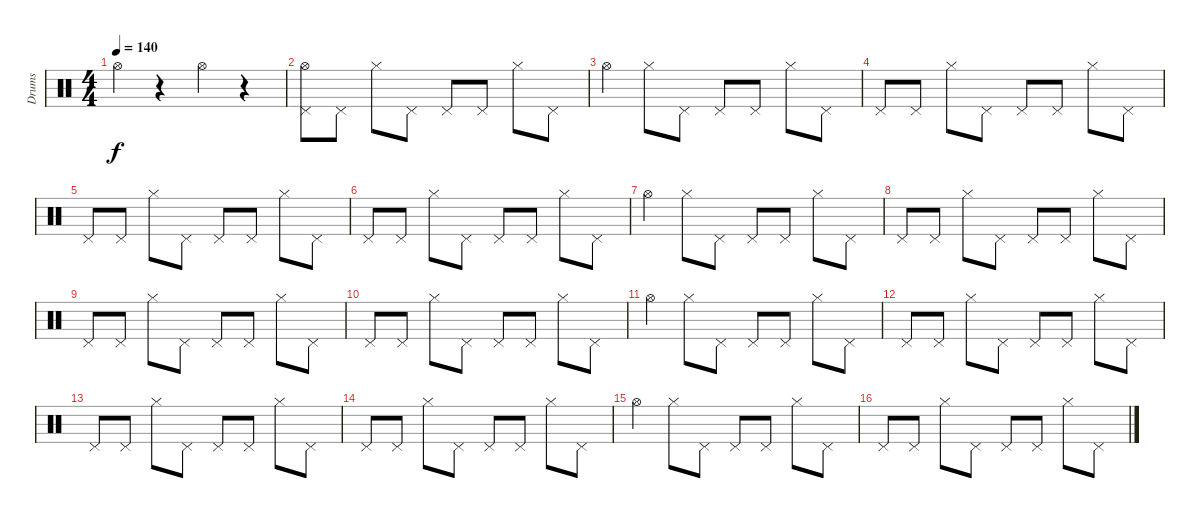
\track ("Drums" "Drums") {instrument percussion}
\staff {score}
\articulation defaults
\ts (4 4)
\tempo 140
\clef neutral
\ks c "Hi-Hat (open)".4{dy f}
r.4 "Hi-Hat (open)".4 r.4 |
("Hi-Hat (open)" "Pedal Hi-Hat (hit)").8 "Pedal Hi-Hat (hit)".8 "Hi-Hat (closed)".8 "Pedal Hi-Hat (hit)".8 "Pedal Hi-Hat (hit)".8 "Pedal Hi-Hat (hit)".8 "Hi-Hat (closed)".8 "Pedal Hi-Hat (hit)".8 |
"Hi-Hat (open)".4 "Hi-Hat (closed)".8 "Pedal Hi-Hat (hit)".8 "Pedal Hi-Hat (hit)".8 "Pedal Hi-Hat (hit)".8 "Hi-Hat (closed)".8 "Pedal Hi-Hat (hit)".8 |
"Pedal Hi-Hat (hit)".8 "Pedal Hi-Hat (hit)".8 "Hi-Hat (closed)".8 "Pedal Hi-Hat (hit)".8 "Pedal Hi-Hat (hit)".8 "Pedal Hi-Hat (hit)".8 "Hi-Hat (closed)".8 "Pedal Hi-Hat (hit)".8 |
"Pedal Hi-Hat (hit)".8 "Pedal Hi-Hat (hit)".8 "Hi-Hat (closed)".8 "Pedal Hi-Hat (hit)".8 "Pedal Hi-Hat (hit)".8 "Pedal Hi-Hat (hit)".8 "Hi-Hat (closed)".8 "Pedal Hi-Hat (hit)".8 |
"Pedal Hi-Hat (hit)".8 "Pedal Hi-Hat (hit)".8 "Hi-Hat (closed)".8 "Pedal Hi-Hat (hit)".8 "Pedal Hi-Hat (hit)".8 "Pedal Hi-Hat (hit)".8 "Hi-Hat (closed)".8 "Pedal Hi-Hat (hit)".8 |
"Hi-Hat (open)".4 "Hi-Hat (closed)".8 "Pedal Hi-Hat (hit)".8 "Pedal Hi-Hat (hit)".8 "Pedal Hi-Hat (hit)".8 "Hi-Hat (closed)".8 "Pedal Hi-Hat (hit)".8 |
"Pedal Hi-Hat (hit)".8 "Pedal Hi-Hat (hit)".8 "Hi-Hat (closed)".8 "Pedal Hi-Hat (hit)".8 "Pedal Hi-Hat (hit)".8 "Pedal Hi-Hat (hit)".8 "Hi-Hat (closed)".8 "Pedal Hi-Hat (hit)".8 |
"Pedal Hi-Hat (hit)".8 "Pedal Hi-Hat (hit)".8 "Hi-Hat (closed)".8 "Pedal Hi-Hat (hit)".8 "Pedal Hi-Hat (hit)".8 "Pedal Hi-Hat (hit)".8 "Hi-Hat (closed)".8 "Pedal Hi-Hat (hit)".8 |
"Pedal Hi-Hat (hit)".8 "Pedal Hi-Hat (hit)".8 "Hi-Hat (closed)".8 "Pedal Hi-Hat (hit)".8 "Pedal Hi-Hat (hit)".8 "Pedal Hi-Hat (hit)".8 "Hi-Hat (closed)".8 "Pedal Hi-Hat (hit)".8 |
"Hi-Hat (open)".4 "Hi-Hat (closed)".8 "Pedal Hi-Hat (hit)".8 "Pedal Hi-Hat (hit)".8 "Pedal Hi-Hat (hit)".8 "Hi-Hat (closed)".8 "Pedal Hi-Hat (hit)".8 |
"Pedal Hi-Hat (hit)".8 "Pedal Hi-Hat (hit)".8 "Hi-Hat (closed)".8 "Pedal Hi-Hat (hit)".8 "Pedal Hi-Hat (hit)".8 "Pedal Hi-Hat (hit)".8 "Hi-Hat (closed)".8 "Pedal Hi-Hat (hit)".8 |
"Pedal Hi-Hat (hit)".8 "Pedal Hi-Hat (hit)".8 "Hi-Hat (closed)".8 "Pedal Hi-Hat (hit)".8 "Pedal Hi-Hat (hit)".8 "Pedal Hi-Hat (hit)".8 "Hi-Hat (closed)".8 "Pedal Hi-Hat (hit)".8 |
"Pedal Hi-Hat (hit)".8 "Pedal Hi-Hat (hit)".8 "Hi-Hat (closed)".8 "Pedal Hi-Hat (hit)".8 "Pedal Hi-Hat (hit)".8 "Pedal Hi-Hat (hit)".8 "Hi-Hat (closed)".8 "Pedal Hi-Hat (hit)".8 |
"Hi-Hat (open)".4 "Hi-Hat (closed)".8 "Pedal Hi-Hat (hit)".8 "Pedal Hi-Hat (hit)".8 "Pedal Hi-Hat (hit)".8 "Hi-Hat (closed)".8 "Pedal Hi-Hat (hit)".8 |
"Pedal Hi-Hat (hit)".8 "Pedal Hi-Hat (hit)".8 "Hi-Hat (closed)".8 "Pedal Hi-Hat (hit)".8 "Pedal Hi-Hat (hit)".8 "Pedal Hi-Hat (hit)".8 "Hi-Hat (closed)".8 "Pedal Hi-Hat (hit)".8
